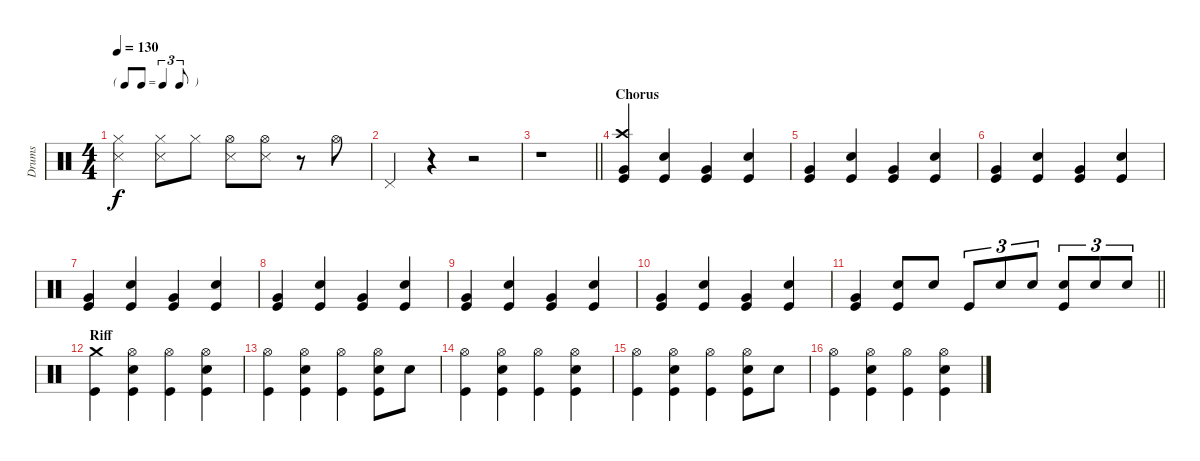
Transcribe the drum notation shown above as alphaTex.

\track ("Drums" "Drums") {instrument percussion}
\staff {score}
\articulation defaults
\ts (4 4)
\tf triplet8th
\tempo 130
\clef neutral
\ks c
("Hi-Hat (closed)" "Snare (side stick) 3").4{dy f} ("Hi-Hat (closed)" "Snare (side stick) 3").8 "Hi-Hat (closed)".8 ("Hi-Hat (open)" "Snare (side stick) 3").8 ("Hi-Hat (open)" "Snare (side stick) 3").8 r.8 "Hi-Hat (open)".8 |
"Pedal Hi-Hat (hit)".4 r.4 r.2 |
\barLineRight lightlight
r.1 |
\section ("" "Chorus")
("Kick (hit)" "Crash high (hit)" "Very Low Tom (hit)").4 ("Snare (hit) 2" "Kick (hit)").4 ("Kick (hit)" "Very Low Tom (hit)").4 ("Snare (hit) 2" "Kick (hit)").4 |
("Kick (hit)" "Very Low Tom (hit)").4 ("Snare (hit) 2" "Kick (hit)").4 ("Kick (hit)" "Very Low Tom (hit)").4 ("Snare (hit) 2" "Kick (hit)").4 |
("Kick (hit)" "Very Low Tom (hit)").4 ("Snare (hit) 2" "Kick (hit)").4 ("Kick (hit)" "Very Low Tom (hit)").4 ("Snare (hit) 2" "Kick (hit)").4 |
("Kick (hit)" "Very Low Tom (hit)").4 ("Snare (hit) 2" "Kick (hit)").4 ("Kick (hit)" "Very Low Tom (hit)").4 ("Snare (hit) 2" "Kick (hit)").4 |
("Kick (hit)" "Very Low Tom (hit)").4 ("Snare (hit) 2" "Kick (hit)").4 ("Kick (hit)" "Very Low Tom (hit)").4 ("Snare (hit) 2" "Kick (hit)").4 |
("Kick (hit)" "Very Low Tom (hit)").4 ("Snare (hit) 2" "Kick (hit)").4 ("Kick (hit)" "Very Low Tom (hit)").4 ("Snare (hit) 2" "Kick (hit)").4 |
("Kick (hit)" "Very Low Tom (hit)").4 ("Snare (hit) 2" "Kick (hit)").4 ("Kick (hit)" "Very Low Tom (hit)").4 ("Snare (hit) 2" "Kick (hit)").4 |
\barLineRight lightlight
("Kick (hit)" "Very Low Tom (hit)").4 ("Snare (hit) 2" "Kick (hit)").8 "Snare (hit) 2".8 "Kick (hit)".8{tu (3 2)} "Snare (hit) 2".8{tu (3 2)} "Snare (hit) 2".8{tu (3 2)} ("Snare (hit) 2" "Kick (hit)").8{tu (3 2)} "Snare (hit) 2".8{tu (3 2)} "Snare (hit) 2".8{tu (3 2)} |
\section ("" "Riff")
("Crash medium (hit)" "Kick (hit)").4 ("Hi-Hat (open)" "Snare (hit) 2" "Kick (hit)").4 ("Hi-Hat (open)" "Kick (hit)").4 ("Hi-Hat (open)" "Snare (hit) 2" "Kick (hit)").4 |
("Hi-Hat (open)" "Kick (hit)").4 ("Hi-Hat (open)" "Snare (hit) 2" "Kick (hit)").4 ("Hi-Hat (open)" "Kick (hit)").4 ("Hi-Hat (open)" "Snare (hit) 2" "Kick (hit)").8 "Snare (hit) 2".8 |
("Hi-Hat (open)" "Kick (hit)").4 ("Hi-Hat (open)" "Snare (hit) 2" "Kick (hit)").4 ("Hi-Hat (open)" "Kick (hit)").4 ("Hi-Hat (open)" "Snare (hit) 2" "Kick (hit)").4 |
("Hi-Hat (open)" "Kick (hit)").4 ("Hi-Hat (open)" "Snare (hit) 2" "Kick (hit)").4 ("Hi-Hat (open)" "Kick (hit)").4 ("Hi-Hat (open)" "Snare (hit) 2" "Kick (hit)").8 "Snare (hit) 2".8 |
("Hi-Hat (open)" "Kick (hit)").4 ("Hi-Hat (open)" "Snare (hit) 2" "Kick (hit)").4 ("Hi-Hat (open)" "Kick (hit)").4 ("Hi-Hat (open)" "Snare (hit) 2" "Kick (hit)").4
